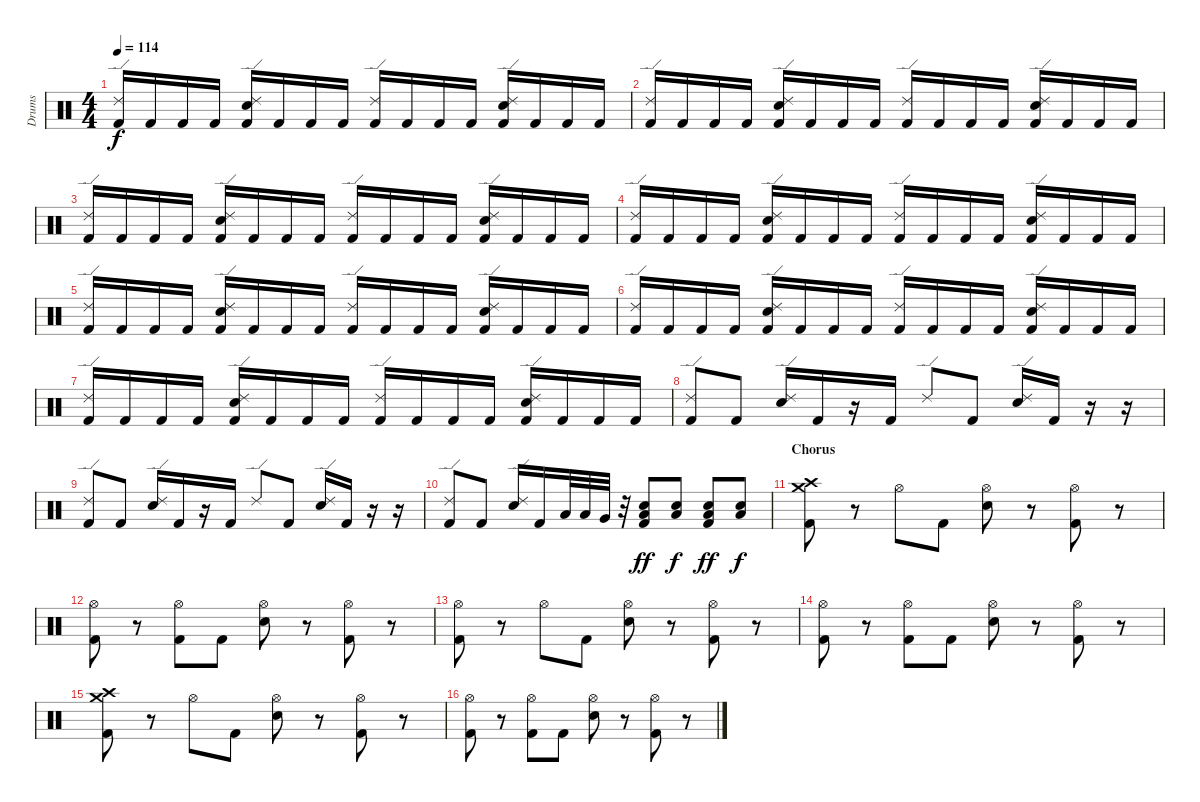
\track ("Drums" "Drums") {instrument percussion}
\staff {score}
\articulation defaults
\ts (4 4)
\tempo 114
\clef neutral
\ks c
("Kick (hit) 2" "Ride (edge) 2").16{dy f} "Kick (hit) 2".16 "Kick (hit) 2".16 "Kick (hit) 2".16 ("Kick (hit) 2" "Electric Snare (hit)" "Ride (edge) 2").16 "Kick (hit) 2".16 "Kick (hit) 2".16 "Kick (hit) 2".16 ("Kick (hit) 2" "Ride (edge) 2").16 "Kick (hit) 2".16 "Kick (hit) 2".16 "Kick (hit) 2".16 ("Kick (hit) 2" "Electric Snare (hit)" "Ride (edge) 2").16 "Kick (hit) 2".16 "Kick (hit) 2".16 "Kick (hit) 2".16 |
("Kick (hit) 2" "Ride (edge) 2").16 "Kick (hit) 2".16 "Kick (hit) 2".16 "Kick (hit) 2".16 ("Kick (hit) 2" "Electric Snare (hit)" "Ride (edge) 2").16 "Kick (hit) 2".16 "Kick (hit) 2".16 "Kick (hit) 2".16 ("Kick (hit) 2" "Ride (edge) 2").16 "Kick (hit) 2".16 "Kick (hit) 2".16 "Kick (hit) 2".16 ("Kick (hit) 2" "Electric Snare (hit)" "Ride (edge) 2").16 "Kick (hit) 2".16 "Kick (hit) 2".16 "Kick (hit) 2".16 |
("Kick (hit) 2" "Ride (edge) 2").16 "Kick (hit) 2".16 "Kick (hit) 2".16 "Kick (hit) 2".16 ("Kick (hit) 2" "Electric Snare (hit)" "Ride (edge) 2").16 "Kick (hit) 2".16 "Kick (hit) 2".16 "Kick (hit) 2".16 ("Kick (hit) 2" "Ride (edge) 2").16 "Kick (hit) 2".16 "Kick (hit) 2".16 "Kick (hit) 2".16 ("Kick (hit) 2" "Electric Snare (hit)" "Ride (edge) 2").16 "Kick (hit) 2".16 "Kick (hit) 2".16 "Kick (hit) 2".16 |
("Kick (hit) 2" "Ride (edge) 2").16 "Kick (hit) 2".16 "Kick (hit) 2".16 "Kick (hit) 2".16 ("Kick (hit) 2" "Electric Snare (hit)" "Ride (edge) 2").16 "Kick (hit) 2".16 "Kick (hit) 2".16 "Kick (hit) 2".16 ("Kick (hit) 2" "Ride (edge) 2").16 "Kick (hit) 2".16 "Kick (hit) 2".16 "Kick (hit) 2".16 ("Kick (hit) 2" "Electric Snare (hit)" "Ride (edge) 2").16 "Kick (hit) 2".16 "Kick (hit) 2".16 "Kick (hit) 2".16 |
("Kick (hit) 2" "Ride (edge) 2").16 "Kick (hit) 2".16 "Kick (hit) 2".16 "Kick (hit) 2".16 ("Kick (hit) 2" "Electric Snare (hit)" "Ride (edge) 2").16 "Kick (hit) 2".16 "Kick (hit) 2".16 "Kick (hit) 2".16 ("Kick (hit) 2" "Ride (edge) 2").16 "Kick (hit) 2".16 "Kick (hit) 2".16 "Kick (hit) 2".16 ("Kick (hit) 2" "Electric Snare (hit)" "Ride (edge) 2").16 "Kick (hit) 2".16 "Kick (hit) 2".16 "Kick (hit) 2".16 |
("Kick (hit) 2" "Ride (edge) 2").16 "Kick (hit) 2".16 "Kick (hit) 2".16 "Kick (hit) 2".16 ("Kick (hit) 2" "Electric Snare (hit)" "Ride (edge) 2").16 "Kick (hit) 2".16 "Kick (hit) 2".16 "Kick (hit) 2".16 ("Kick (hit) 2" "Ride (edge) 2").16 "Kick (hit) 2".16 "Kick (hit) 2".16 "Kick (hit) 2".16 ("Kick (hit) 2" "Electric Snare (hit)" "Ride (edge) 2").16 "Kick (hit) 2".16 "Kick (hit) 2".16 "Kick (hit) 2".16 |
("Kick (hit) 2" "Ride (edge) 2").16 "Kick (hit) 2".16 "Kick (hit) 2".16 "Kick (hit) 2".16 ("Kick (hit) 2" "Electric Snare (hit)" "Ride (edge) 2").16 "Kick (hit) 2".16 "Kick (hit) 2".16 "Kick (hit) 2".16 ("Kick (hit) 2" "Ride (edge) 2").16 "Kick (hit) 2".16 "Kick (hit) 2".16 "Kick (hit) 2".16 ("Kick (hit) 2" "Electric Snare (hit)" "Ride (edge) 2").16 "Kick (hit) 2".16 "Kick (hit) 2".16 "Kick (hit) 2".16 |
("Kick (hit) 2" "Ride (edge) 2").8 "Kick (hit) 2".8 ("Electric Snare (hit)" "Ride (edge) 2").16 "Kick (hit) 2".16 r.16 "Kick (hit) 2".16 "Ride (edge) 2".8 "Kick (hit) 2".8 ("Electric Snare (hit)" "Ride (edge) 2").16 "Kick (hit) 2".16 r.16 r.16 |
("Kick (hit) 2" "Ride (edge) 2").8 "Kick (hit) 2".8 ("Electric Snare (hit)" "Ride (edge) 2").16 "Kick (hit) 2".16 r.16 "Kick (hit) 2".16 "Ride (edge) 2".8 "Kick (hit) 2".8 ("Electric Snare (hit)" "Ride (edge) 2").16 "Kick (hit) 2".16 r.16 r.16 |
("Kick (hit) 2" "Ride (edge) 2").8 "Kick (hit) 2".8 ("Electric Snare (hit)" "Ride (edge) 2").16 "Kick (hit) 2".16 "Low Tom (hit)".32 "Low Tom (hit)".32 "Very Low Tom (hit)".32 r.32 ("Kick (hit) 2" "Low Tom (hit)" "Electric Snare (hit)").8{dy ff} ("Low Floor Tom (hit)" "Electric Snare (hit)").8{dy f} ("Kick (hit) 2" "Low Tom (hit)" "Electric Snare (hit)").8{dy ff} ("Low Floor Tom (hit)" "Electric Snare (hit)").8{dy f} |
\section ("" "Chorus")
("Kick (hit) 2" "Crash medium (hit)" "Crash high (hit)").8 r.8 "Hi-Hat (open)".8 "Kick (hit) 2".8 ("Electric Snare (hit)" "Hi-Hat (open)").8 r.8 ("Kick (hit) 2" "Hi-Hat (open)").8 r.8 |
("Kick (hit) 2" "Hi-Hat (open)").8 r.8 ("Kick (hit) 2" "Hi-Hat (open)").8 "Kick (hit) 2".8 ("Electric Snare (hit)" "Hi-Hat (open)").8 r.8 ("Kick (hit) 2" "Hi-Hat (open)").8 r.8 |
("Kick (hit) 2" "Hi-Hat (open)").8 r.8 "Hi-Hat (open)".8 "Kick (hit) 2".8 ("Electric Snare (hit)" "Hi-Hat (open)").8 r.8 ("Kick (hit) 2" "Hi-Hat (open)").8 r.8 |
("Kick (hit) 2" "Hi-Hat (open)").8 r.8 ("Kick (hit) 2" "Hi-Hat (open)").8 "Kick (hit) 2".8 ("Electric Snare (hit)" "Hi-Hat (open)").8 r.8 ("Kick (hit) 2" "Hi-Hat (open)").8 r.8 |
("Kick (hit) 2" "Crash medium (hit)" "Crash high (hit)").8 r.8 "Hi-Hat (open)".8 "Kick (hit) 2".8 ("Electric Snare (hit)" "Hi-Hat (open)").8 r.8 ("Kick (hit) 2" "Hi-Hat (open)").8 r.8 |
("Kick (hit) 2" "Hi-Hat (open)").8 r.8 ("Kick (hit) 2" "Hi-Hat (open)").8 "Kick (hit) 2".8 ("Electric Snare (hit)" "Hi-Hat (open)").8 r.8 ("Kick (hit) 2" "Hi-Hat (open)").8 r.8
